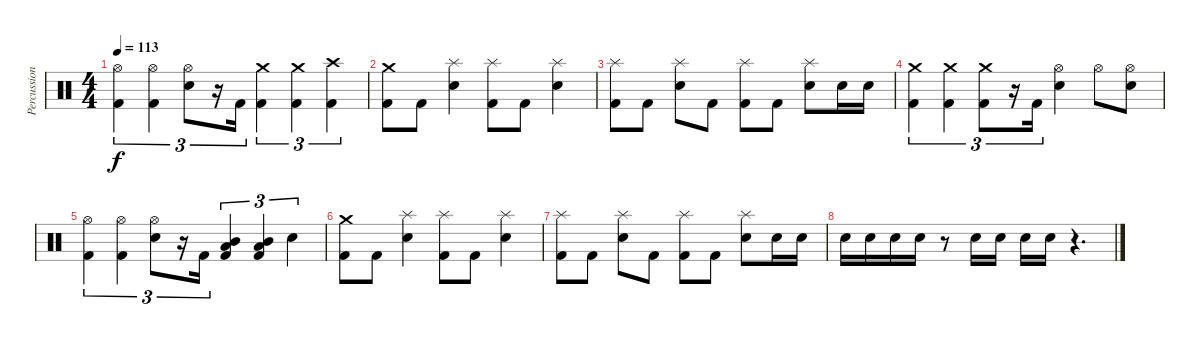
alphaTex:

\track ("Percussion" "Percussion") {instrument percussion}
\staff {score}
\articulation defaults
\ts (4 4)
\tempo 113
\clef neutral
\ks c
("Kick (hit) 2" "Hi-Hat (open)").4{tu (3 2) dy f} ("Kick (hit) 2" "Hi-Hat (open)").4{tu (3 2)} ("Electric Snare (hit)" "Hi-Hat (open)").8{tu (3 2)} r.16{tu (3 2)} "Kick (hit) 2".16{tu (3 2)} ("Kick (hit) 2" "Crash medium (hit)").4{tu (3 2)} ("Kick (hit) 2" "Crash medium (hit)").4{tu (3 2)} ("Kick (hit) 2" "Crash high (hit)").4{tu (3 2)} |
("Kick (hit) 2" "Crash medium (hit)").8 "Kick (hit) 2".8 ("Snare (hit) 2" "Splash (hit)").4 ("Kick (hit) 2" "Splash (hit)").8 "Kick (hit) 2".8 ("Snare (hit) 2" "Splash (hit)").4 |
("Kick (hit) 2" "Splash (hit)").8 "Kick (hit) 2".8 ("Snare (hit) 2" "Splash (hit)").8 "Kick (hit) 2".8 ("Kick (hit) 2" "Splash (hit)").8 "Kick (hit) 2".8 ("Snare (hit) 2" "Splash (hit)").8 "Snare (hit) 2".16 "Snare (hit) 2".16 |
("Kick (hit) 2" "Crash medium (hit)").4{tu (3 2)} ("Kick (hit) 2" "Crash medium (hit)").4{tu (3 2)} ("Kick (hit) 2" "Crash medium (hit)").8{tu (3 2)} r.16{tu (3 2)} "Kick (hit) 2".16{tu (3 2)} ("Electric Snare (hit)" "Hi-Hat (open)").4 "Hi-Hat (open)".8 ("Electric Snare (hit)" "Hi-Hat (open)").8 |
("Kick (hit) 2" "Hi-Hat (open)").4{tu (3 2)} ("Kick (hit) 2" "Hi-Hat (open)").4{tu (3 2)} ("Electric Snare (hit)" "Hi-Hat (open)").8{tu (3 2)} r.16{tu (3 2)} "Kick (hit) 2".16{tu (3 2)} ("Kick (hit) 2" "Low Tom (hit)" "Mid Tom (hit)").4{tu (3 2)} ("Kick (hit) 2" "Low Tom (hit)" "Mid Tom (hit)").4{tu (3 2)} "Electric Snare (hit)".4{tu (3 2)} |
("Kick (hit) 2" "Crash medium (hit)").8 "Kick (hit) 2".8 ("Snare (hit) 2" "Splash (hit)").4 ("Kick (hit) 2" "Splash (hit)").8 "Kick (hit) 2".8 ("Snare (hit) 2" "Splash (hit)").4 |
("Kick (hit) 2" "Splash (hit)").8 "Kick (hit) 2".8 ("Snare (hit) 2" "Splash (hit)").8 "Kick (hit) 2".8 ("Kick (hit) 2" "Splash (hit)").8 "Kick (hit) 2".8 ("Snare (hit) 2" "Splash (hit)").8 "Snare (hit) 2".16 "Snare (hit) 2".16 |
"Electric Snare (hit)".16 "Electric Snare (hit)".16 "Electric Snare (hit)".16 "Electric Snare (hit)".16 r.8 "Electric Snare (hit)".16 "Electric Snare (hit)".16 "Electric Snare (hit)".16 "Electric Snare (hit)".16 r.4{d}
